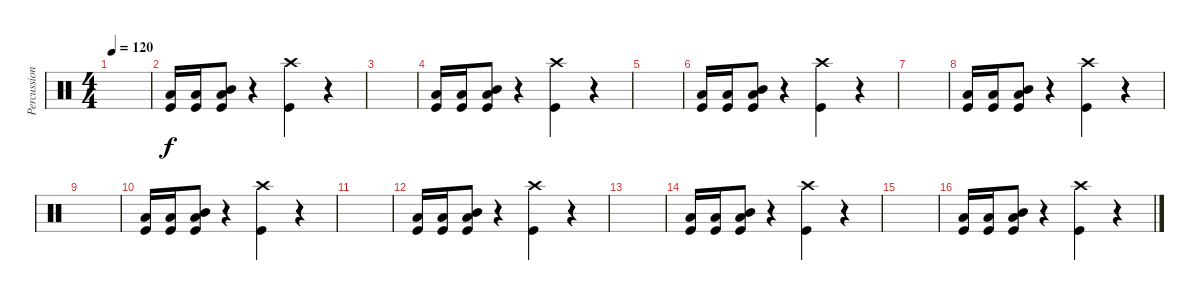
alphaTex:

\track ("Percussioni" "Percussion") {instrument percussion}
\staff {score}
\articulation defaults
\ts (4 4)
\tempo 120
\clef neutral
\ks c
|
("Low Tom (hit)" "Kick (hit)").16 ("Low Tom (hit)" "Kick (hit)").16 ("Mid Tom (hit)" "Low Tom (hit)" "Kick (hit)").8 r.4 ("Crash high (hit)" "Kick (hit)").4 r.4 |
|
("Low Tom (hit)" "Kick (hit)").16 ("Low Tom (hit)" "Kick (hit)").16 ("Mid Tom (hit)" "Low Tom (hit)" "Kick (hit)").8 r.4 ("Crash high (hit)" "Kick (hit)").4 r.4 |
|
("Low Tom (hit)" "Kick (hit)").16 ("Low Tom (hit)" "Kick (hit)").16 ("Mid Tom (hit)" "Low Tom (hit)" "Kick (hit)").8 r.4 ("Crash high (hit)" "Kick (hit)").4 r.4 |
|
("Low Tom (hit)" "Kick (hit)").16{volume 14} ("Low Tom (hit)" "Kick (hit)").16 ("Mid Tom (hit)" "Low Tom (hit)" "Kick (hit)").8 r.4 ("Crash high (hit)" "Kick (hit)").4 r.4 |
|
("Low Tom (hit)" "Kick (hit)").16{volume 12} ("Low Tom (hit)" "Kick (hit)").16 ("Mid Tom (hit)" "Low Tom (hit)" "Kick (hit)").8 r.4 ("Crash high (hit)" "Kick (hit)").4 r.4 |
|
("Low Tom (hit)" "Kick (hit)").16{volume 10} ("Low Tom (hit)" "Kick (hit)").16 ("Mid Tom (hit)" "Low Tom (hit)" "Kick (hit)").8 r.4 ("Crash high (hit)" "Kick (hit)").4 r.4 |
|
("Low Tom (hit)" "Kick (hit)").16{volume 8} ("Low Tom (hit)" "Kick (hit)").16 ("Mid Tom (hit)" "Low Tom (hit)" "Kick (hit)").8 r.4 ("Crash high (hit)" "Kick (hit)").4 r.4 |
|
("Low Tom (hit)" "Kick (hit)").16{volume 6} ("Low Tom (hit)" "Kick (hit)").16 ("Mid Tom (hit)" "Low Tom (hit)" "Kick (hit)").8 r.4 ("Crash high (hit)" "Kick (hit)").4 r.4
